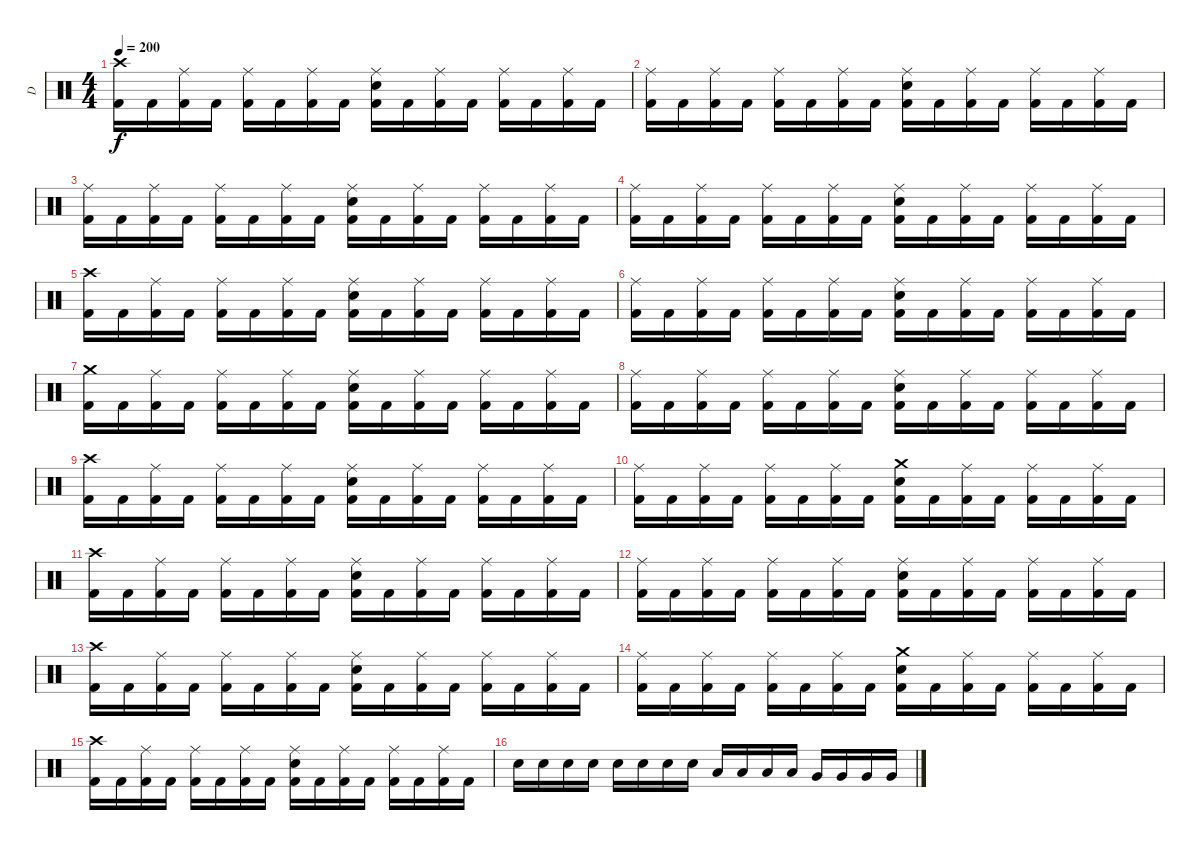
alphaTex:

\track ("D" "D") {instrument percussion}
\staff {score}
\articulation defaults
\ts (4 4)
\tempo 200
\clef neutral
\ks c
("Crash high (hit)" "Kick (hit) 2").16{dy f} "Kick (hit) 2".16 ("Ride (middle)" "Kick (hit) 2").16 "Kick (hit) 2".16 ("Ride (middle)" "Kick (hit) 2").16 "Kick (hit) 2".16 ("Ride (middle)" "Kick (hit) 2").16 "Kick (hit) 2".16 ("Ride (middle)" "Electric Snare (hit)" "Kick (hit) 2").16 "Kick (hit) 2".16 ("Ride (middle)" "Kick (hit) 2").16 "Kick (hit) 2".16 ("Ride (middle)" "Kick (hit) 2").16 "Kick (hit) 2".16 ("Ride (middle)" "Kick (hit) 2").16 "Kick (hit) 2".16 |
("Ride (middle)" "Kick (hit) 2").16 "Kick (hit) 2".16 ("Ride (middle)" "Kick (hit) 2").16 "Kick (hit) 2".16 ("Ride (middle)" "Kick (hit) 2").16 "Kick (hit) 2".16 ("Ride (middle)" "Kick (hit) 2").16 "Kick (hit) 2".16 ("Ride (middle)" "Electric Snare (hit)" "Kick (hit) 2").16 "Kick (hit) 2".16 ("Ride (middle)" "Kick (hit) 2").16 "Kick (hit) 2".16 ("Ride (middle)" "Kick (hit) 2").16 "Kick (hit) 2".16 ("Ride (middle)" "Kick (hit) 2").16 "Kick (hit) 2".16 |
("Ride (middle)" "Kick (hit) 2").16 "Kick (hit) 2".16 ("Ride (middle)" "Kick (hit) 2").16 "Kick (hit) 2".16 ("Ride (middle)" "Kick (hit) 2").16 "Kick (hit) 2".16 ("Ride (middle)" "Kick (hit) 2").16 "Kick (hit) 2".16 ("Ride (middle)" "Electric Snare (hit)" "Kick (hit) 2").16 "Kick (hit) 2".16 ("Ride (middle)" "Kick (hit) 2").16 "Kick (hit) 2".16 ("Ride (middle)" "Kick (hit) 2").16 "Kick (hit) 2".16 ("Ride (middle)" "Kick (hit) 2").16 "Kick (hit) 2".16 |
("Ride (middle)" "Kick (hit) 2").16 "Kick (hit) 2".16 ("Ride (middle)" "Kick (hit) 2").16 "Kick (hit) 2".16 ("Ride (middle)" "Kick (hit) 2").16 "Kick (hit) 2".16 ("Ride (middle)" "Kick (hit) 2").16 "Kick (hit) 2".16 ("Ride (middle)" "Electric Snare (hit)" "Kick (hit) 2").16 "Kick (hit) 2".16 ("Ride (middle)" "Kick (hit) 2").16 "Kick (hit) 2".16 ("Ride (middle)" "Kick (hit) 2").16 "Kick (hit) 2".16 ("Ride (middle)" "Kick (hit) 2").16 "Kick (hit) 2".16 |
("Crash high (hit)" "Kick (hit) 2").16 "Kick (hit) 2".16 ("Ride (middle)" "Kick (hit) 2").16 "Kick (hit) 2".16 ("Ride (middle)" "Kick (hit) 2").16 "Kick (hit) 2".16 ("Ride (middle)" "Kick (hit) 2").16 "Kick (hit) 2".16 ("Ride (middle)" "Electric Snare (hit)" "Kick (hit) 2").16 "Kick (hit) 2".16 ("Ride (middle)" "Kick (hit) 2").16 "Kick (hit) 2".16 ("Ride (middle)" "Kick (hit) 2").16 "Kick (hit) 2".16 ("Ride (middle)" "Kick (hit) 2").16 "Kick (hit) 2".16 |
("Ride (middle)" "Kick (hit) 2").16 "Kick (hit) 2".16 ("Ride (middle)" "Kick (hit) 2").16 "Kick (hit) 2".16 ("Ride (middle)" "Kick (hit) 2").16 "Kick (hit) 2".16 ("Ride (middle)" "Kick (hit) 2").16 "Kick (hit) 2".16 ("Ride (middle)" "Electric Snare (hit)" "Kick (hit) 2").16 "Kick (hit) 2".16 ("Ride (middle)" "Kick (hit) 2").16 "Kick (hit) 2".16 ("Ride (middle)" "Kick (hit) 2").16 "Kick (hit) 2".16 ("Ride (middle)" "Kick (hit) 2").16 "Kick (hit) 2".16 |
("Crash medium (hit)" "Kick (hit) 2").16 "Kick (hit) 2".16 ("Ride (middle)" "Kick (hit) 2").16 "Kick (hit) 2".16 ("Ride (middle)" "Kick (hit) 2").16 "Kick (hit) 2".16 ("Ride (middle)" "Kick (hit) 2").16 "Kick (hit) 2".16 ("Ride (middle)" "Electric Snare (hit)" "Kick (hit) 2").16 "Kick (hit) 2".16 ("Ride (middle)" "Kick (hit) 2").16 "Kick (hit) 2".16 ("Ride (middle)" "Kick (hit) 2").16 "Kick (hit) 2".16 ("Ride (middle)" "Kick (hit) 2").16 "Kick (hit) 2".16 |
("Ride (middle)" "Kick (hit) 2").16 "Kick (hit) 2".16 ("Ride (middle)" "Kick (hit) 2").16 "Kick (hit) 2".16 ("Ride (middle)" "Kick (hit) 2").16 "Kick (hit) 2".16 ("Ride (middle)" "Kick (hit) 2").16 "Kick (hit) 2".16 ("Ride (middle)" "Electric Snare (hit)" "Kick (hit) 2").16 "Kick (hit) 2".16 ("Ride (middle)" "Kick (hit) 2").16 "Kick (hit) 2".16 ("Ride (middle)" "Kick (hit) 2").16 "Kick (hit) 2".16 ("Ride (middle)" "Kick (hit) 2").16 "Kick (hit) 2".16 |
("Crash high (hit)" "Kick (hit) 2").16 "Kick (hit) 2".16 ("Ride (middle)" "Kick (hit) 2").16 "Kick (hit) 2".16 ("Ride (middle)" "Kick (hit) 2").16 "Kick (hit) 2".16 ("Ride (middle)" "Kick (hit) 2").16 "Kick (hit) 2".16 ("Ride (middle)" "Electric Snare (hit)" "Kick (hit) 2").16 "Kick (hit) 2".16 ("Ride (middle)" "Kick (hit) 2").16 "Kick (hit) 2".16 ("Ride (middle)" "Kick (hit) 2").16 "Kick (hit) 2".16 ("Ride (middle)" "Kick (hit) 2").16 "Kick (hit) 2".16 |
("Ride (middle)" "Kick (hit) 2").16 "Kick (hit) 2".16 ("Ride (middle)" "Kick (hit) 2").16 "Kick (hit) 2".16 ("Ride (middle)" "Kick (hit) 2").16 "Kick (hit) 2".16 ("Ride (middle)" "Kick (hit) 2").16 "Kick (hit) 2".16 ("Crash medium (hit)" "Electric Snare (hit)" "Kick (hit) 2").16 "Kick (hit) 2".16 ("Ride (middle)" "Kick (hit) 2").16 "Kick (hit) 2".16 ("Ride (middle)" "Kick (hit) 2").16 "Kick (hit) 2".16 ("Ride (middle)" "Kick (hit) 2").16 "Kick (hit) 2".16 |
("Crash high (hit)" "Kick (hit) 2").16 "Kick (hit) 2".16 ("Ride (middle)" "Kick (hit) 2").16 "Kick (hit) 2".16 ("Ride (middle)" "Kick (hit) 2").16 "Kick (hit) 2".16 ("Ride (middle)" "Kick (hit) 2").16 "Kick (hit) 2".16 ("Ride (middle)" "Electric Snare (hit)" "Kick (hit) 2").16 "Kick (hit) 2".16 ("Ride (middle)" "Kick (hit) 2").16 "Kick (hit) 2".16 ("Ride (middle)" "Kick (hit) 2").16 "Kick (hit) 2".16 ("Ride (middle)" "Kick (hit) 2").16 "Kick (hit) 2".16 |
("Ride (middle)" "Kick (hit) 2").16 "Kick (hit) 2".16 ("Ride (middle)" "Kick (hit) 2").16 "Kick (hit) 2".16 ("Ride (middle)" "Kick (hit) 2").16 "Kick (hit) 2".16 ("Ride (middle)" "Kick (hit) 2").16 "Kick (hit) 2".16 ("Ride (middle)" "Electric Snare (hit)" "Kick (hit) 2").16 "Kick (hit) 2".16 ("Ride (middle)" "Kick (hit) 2").16 "Kick (hit) 2".16 ("Ride (middle)" "Kick (hit) 2").16 "Kick (hit) 2".16 ("Ride (middle)" "Kick (hit) 2").16 "Kick (hit) 2".16 |
("Crash high (hit)" "Kick (hit) 2").16 "Kick (hit) 2".16 ("Ride (middle)" "Kick (hit) 2").16 "Kick (hit) 2".16 ("Ride (middle)" "Kick (hit) 2").16 "Kick (hit) 2".16 ("Ride (middle)" "Kick (hit) 2").16 "Kick (hit) 2".16 ("Ride (middle)" "Electric Snare (hit)" "Kick (hit) 2").16 "Kick (hit) 2".16 ("Ride (middle)" "Kick (hit) 2").16 "Kick (hit) 2".16 ("Ride (middle)" "Kick (hit) 2").16 "Kick (hit) 2".16 ("Ride (middle)" "Kick (hit) 2").16 "Kick (hit) 2".16 |
("Ride (middle)" "Kick (hit) 2").16 "Kick (hit) 2".16 ("Ride (middle)" "Kick (hit) 2").16 "Kick (hit) 2".16 ("Ride (middle)" "Kick (hit) 2").16 "Kick (hit) 2".16 ("Ride (middle)" "Kick (hit) 2").16 "Kick (hit) 2".16 ("Crash medium (hit)" "Electric Snare (hit)" "Kick (hit) 2").16 "Kick (hit) 2".16 ("Ride (middle)" "Kick (hit) 2").16 "Kick (hit) 2".16 ("Ride (middle)" "Kick (hit) 2").16 "Kick (hit) 2".16 ("Ride (middle)" "Kick (hit) 2").16 "Kick (hit) 2".16 |
("Crash high (hit)" "Kick (hit) 2").16 "Kick (hit) 2".16 ("Ride (middle)" "Kick (hit) 2").16 "Kick (hit) 2".16 ("Ride (middle)" "Kick (hit) 2").16 "Kick (hit) 2".16 ("Ride (middle)" "Kick (hit) 2").16 "Kick (hit) 2".16 ("Ride (middle)" "Electric Snare (hit)" "Kick (hit) 2").16 "Kick (hit) 2".16 ("Ride (middle)" "Kick (hit) 2").16 "Kick (hit) 2".16 ("Ride (middle)" "Kick (hit) 2").16 "Kick (hit) 2".16 ("Ride (middle)" "Kick (hit) 2").16 "Kick (hit) 2".16 |
"Electric Snare (hit)".16 "Electric Snare (hit)".16 "Electric Snare (hit)".16 "Electric Snare (hit)".16 "Electric Snare (hit)".16 "Electric Snare (hit)".16 "Electric Snare (hit)".16 "Electric Snare (hit)".16 "Low Tom (hit)".16 "Low Tom (hit)".16 "Low Tom (hit)".16 "Low Tom (hit)".16 "Very Low Tom (hit)".16 "Very Low Tom (hit)".16 "Very Low Tom (hit)".16 "Very Low Tom (hit)".16
